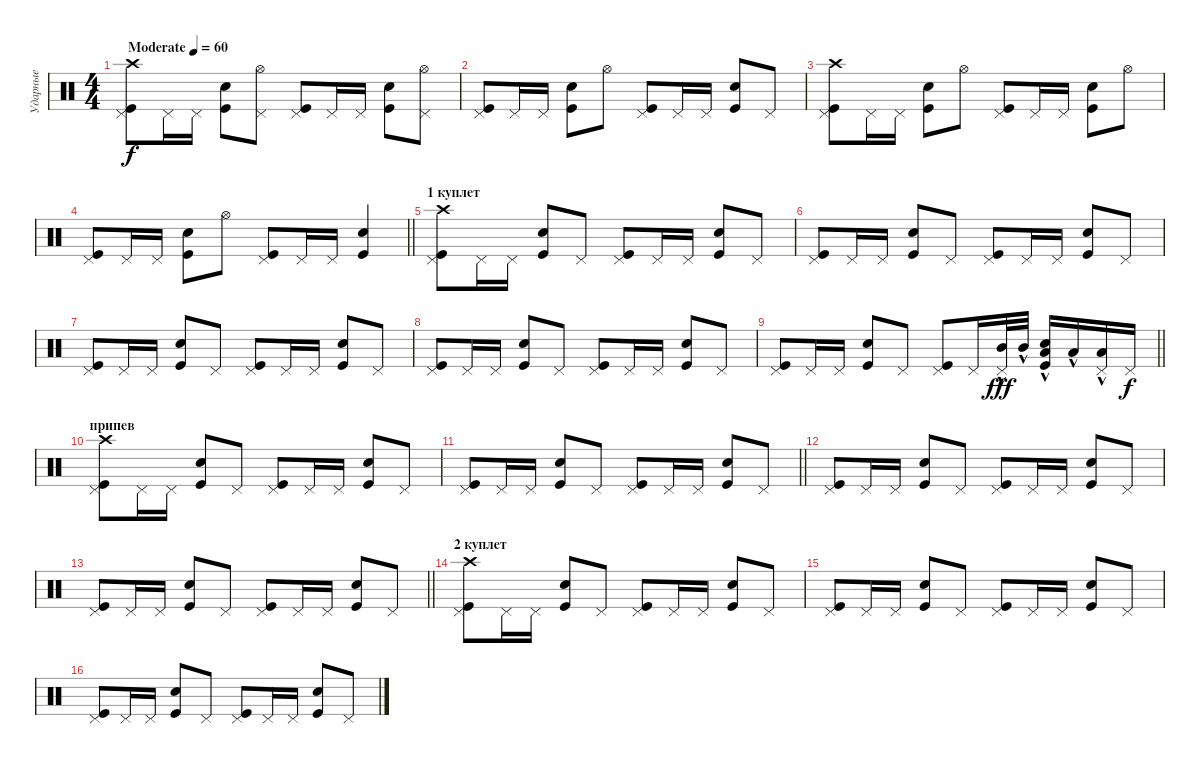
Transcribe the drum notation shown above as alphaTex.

\track ("Ударные" "Ударные") {instrument percussion}
\staff {score}
\articulation defaults
\ts (4 4)
\tempo (60 "Moderate")
\clef neutral
\ks c
("Pedal Hi-Hat (hit)" "Kick (hit)" "Crash high (hit)").8{dy f} "Pedal Hi-Hat (hit)".16 "Pedal Hi-Hat (hit)".16 ("Kick (hit)" "Snare (hit) 2").8 ("Pedal Hi-Hat (hit)" "Hi-Hat (open)").8 ("Pedal Hi-Hat (hit)" "Kick (hit)").8 "Pedal Hi-Hat (hit)".16 "Pedal Hi-Hat (hit)".16 ("Kick (hit)" "Snare (hit) 2").8 ("Pedal Hi-Hat (hit)" "Hi-Hat (open)").8 |
("Pedal Hi-Hat (hit)" "Kick (hit)").8 "Pedal Hi-Hat (hit)".16 "Pedal Hi-Hat (hit)".16 ("Kick (hit)" "Snare (hit) 2").8 "Hi-Hat (open)".8 ("Pedal Hi-Hat (hit)" "Kick (hit)").8 "Pedal Hi-Hat (hit)".16 "Pedal Hi-Hat (hit)".16 ("Kick (hit)" "Snare (hit) 2").8 "Pedal Hi-Hat (hit)".8 |
("Pedal Hi-Hat (hit)" "Kick (hit)" "Crash high (hit)").8 "Pedal Hi-Hat (hit)".16 "Pedal Hi-Hat (hit)".16 ("Kick (hit)" "Snare (hit) 2").8 "Hi-Hat (open)".8 ("Pedal Hi-Hat (hit)" "Kick (hit)").8 "Pedal Hi-Hat (hit)".16 "Pedal Hi-Hat (hit)".16 ("Kick (hit)" "Snare (hit) 2").8 "Hi-Hat (open)".8 |
\barLineRight lightlight
("Pedal Hi-Hat (hit)" "Kick (hit)").8 "Pedal Hi-Hat (hit)".16 "Pedal Hi-Hat (hit)".16 ("Kick (hit)" "Snare (hit) 2").8 "Hi-Hat (open)".8 ("Pedal Hi-Hat (hit)" "Kick (hit)").8 "Pedal Hi-Hat (hit)".16 "Pedal Hi-Hat (hit)".16 ("Kick (hit)" "Snare (hit) 2").4 |
\section ("" "1 куплет")
("Pedal Hi-Hat (hit)" "Kick (hit)" "Crash high (hit)").8 "Pedal Hi-Hat (hit)".16 "Pedal Hi-Hat (hit)".16 ("Kick (hit)" "Snare (hit) 2").8 "Pedal Hi-Hat (hit)".8 ("Pedal Hi-Hat (hit)" "Kick (hit)").8 "Pedal Hi-Hat (hit)".16 "Pedal Hi-Hat (hit)".16 ("Kick (hit)" "Snare (hit) 2").8 "Pedal Hi-Hat (hit)".8 |
("Pedal Hi-Hat (hit)" "Kick (hit)").8 "Pedal Hi-Hat (hit)".16 "Pedal Hi-Hat (hit)".16 ("Kick (hit)" "Snare (hit) 2").8 "Pedal Hi-Hat (hit)".8 ("Pedal Hi-Hat (hit)" "Kick (hit)").8 "Pedal Hi-Hat (hit)".16 "Pedal Hi-Hat (hit)".16 ("Kick (hit)" "Snare (hit) 2").8 "Pedal Hi-Hat (hit)".8 |
("Pedal Hi-Hat (hit)" "Kick (hit)").8 "Pedal Hi-Hat (hit)".16 "Pedal Hi-Hat (hit)".16 ("Kick (hit)" "Snare (hit) 2").8 "Pedal Hi-Hat (hit)".8 ("Pedal Hi-Hat (hit)" "Kick (hit)").8 "Pedal Hi-Hat (hit)".16 "Pedal Hi-Hat (hit)".16 ("Kick (hit)" "Snare (hit) 2").8 "Pedal Hi-Hat (hit)".8 |
("Pedal Hi-Hat (hit)" "Kick (hit)").8 "Pedal Hi-Hat (hit)".16 "Pedal Hi-Hat (hit)".16 ("Kick (hit)" "Snare (hit) 2").8 "Pedal Hi-Hat (hit)".8 ("Pedal Hi-Hat (hit)" "Kick (hit)").8 "Pedal Hi-Hat (hit)".16 "Pedal Hi-Hat (hit)".16 ("Kick (hit)" "Snare (hit) 2").8 "Pedal Hi-Hat (hit)".8 |
\barLineRight lightlight
("Pedal Hi-Hat (hit)" "Kick (hit)").8 "Pedal Hi-Hat (hit)".16 "Pedal Hi-Hat (hit)".16 ("Kick (hit)" "Snare (hit) 2").8 "Pedal Hi-Hat (hit)".8 ("Pedal Hi-Hat (hit)" "Kick (hit)").8 "Pedal Hi-Hat (hit)".16 ("Pedal Hi-Hat (hit)" "Mid Tom (hit)"{hac}).32{dy fff} "Mid Tom (hit)"{hac}.32 ("Low Tom (hit)"{hac} "Snare (hit) 2" "Kick (hit)").16 "Low Tom (hit)"{hac}.16 ("Pedal Hi-Hat (hit)" "Low Tom (hit)"{hac}).16 "Pedal Hi-Hat (hit)".16{dy f} |
\section ("" "припев")
("Pedal Hi-Hat (hit)" "Kick (hit)" "Crash high (hit)").8 "Pedal Hi-Hat (hit)".16 "Pedal Hi-Hat (hit)".16 ("Kick (hit)" "Snare (hit) 2").8 "Pedal Hi-Hat (hit)".8 ("Pedal Hi-Hat (hit)" "Kick (hit)").8 "Pedal Hi-Hat (hit)".16 "Pedal Hi-Hat (hit)".16 ("Kick (hit)" "Snare (hit) 2").8 "Pedal Hi-Hat (hit)".8 |
\barLineRight lightlight
("Pedal Hi-Hat (hit)" "Kick (hit)").8 "Pedal Hi-Hat (hit)".16 "Pedal Hi-Hat (hit)".16 ("Kick (hit)" "Snare (hit) 2").8 "Pedal Hi-Hat (hit)".8 ("Pedal Hi-Hat (hit)" "Kick (hit)").8 "Pedal Hi-Hat (hit)".16 "Pedal Hi-Hat (hit)".16 ("Kick (hit)" "Snare (hit) 2").8 "Pedal Hi-Hat (hit)".8 |
("Pedal Hi-Hat (hit)" "Kick (hit)").8 "Pedal Hi-Hat (hit)".16 "Pedal Hi-Hat (hit)".16 ("Kick (hit)" "Snare (hit) 2").8 "Pedal Hi-Hat (hit)".8 ("Pedal Hi-Hat (hit)" "Kick (hit)").8 "Pedal Hi-Hat (hit)".16 "Pedal Hi-Hat (hit)".16 ("Kick (hit)" "Snare (hit) 2").8 "Pedal Hi-Hat (hit)".8 |
\barLineRight lightlight
("Pedal Hi-Hat (hit)" "Kick (hit)").8 "Pedal Hi-Hat (hit)".16 "Pedal Hi-Hat (hit)".16 ("Kick (hit)" "Snare (hit) 2").8 "Pedal Hi-Hat (hit)".8 ("Pedal Hi-Hat (hit)" "Kick (hit)").8 "Pedal Hi-Hat (hit)".16 "Pedal Hi-Hat (hit)".16 ("Kick (hit)" "Snare (hit) 2").8 "Pedal Hi-Hat (hit)".8 |
\section ("" "2 куплет")
("Pedal Hi-Hat (hit)" "Kick (hit)" "Crash high (hit)").8 "Pedal Hi-Hat (hit)".16 "Pedal Hi-Hat (hit)".16 ("Kick (hit)" "Snare (hit) 2").8 "Pedal Hi-Hat (hit)".8 ("Pedal Hi-Hat (hit)" "Kick (hit)").8 "Pedal Hi-Hat (hit)".16 "Pedal Hi-Hat (hit)".16 ("Kick (hit)" "Snare (hit) 2").8 "Pedal Hi-Hat (hit)".8 |
("Pedal Hi-Hat (hit)" "Kick (hit)").8 "Pedal Hi-Hat (hit)".16 "Pedal Hi-Hat (hit)".16 ("Kick (hit)" "Snare (hit) 2").8 "Pedal Hi-Hat (hit)".8 ("Pedal Hi-Hat (hit)" "Kick (hit)").8 "Pedal Hi-Hat (hit)".16 "Pedal Hi-Hat (hit)".16 ("Kick (hit)" "Snare (hit) 2").8 "Pedal Hi-Hat (hit)".8 |
("Pedal Hi-Hat (hit)" "Kick (hit)").8 "Pedal Hi-Hat (hit)".16 "Pedal Hi-Hat (hit)".16 ("Kick (hit)" "Snare (hit) 2").8 "Pedal Hi-Hat (hit)".8 ("Pedal Hi-Hat (hit)" "Kick (hit)").8 "Pedal Hi-Hat (hit)".16 "Pedal Hi-Hat (hit)".16 ("Kick (hit)" "Snare (hit) 2").8 "Pedal Hi-Hat (hit)".8
